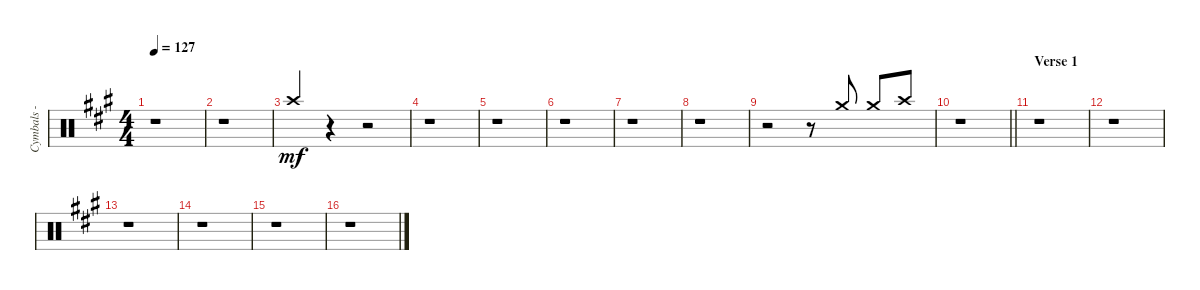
\track ("Cymbals - crash" "Cymbals - ") {instrument percussion}
\staff {score}
\articulation defaults
\ts (4 4)
\tempo 127
\clef neutral
\ks a
r.1{dy mf} |
r.1 |
"Crash high (hit)".4{beam Up} r.4 r.2 |
r.1 |
r.1 |
r.1 |
r.1 |
r.1 |
r.2{balance 6} r.8 "Crash medium (hit)".8{beam Up} "Crash medium (hit)".8{beam Up} "Crash high (hit)".8{beam Up} |
\barLineRight lightlight
r.1 |
\section ("" "Verse 1")
r.1 |
r.1 |
r.1 |
r.1 |
r.1 |
r.1
